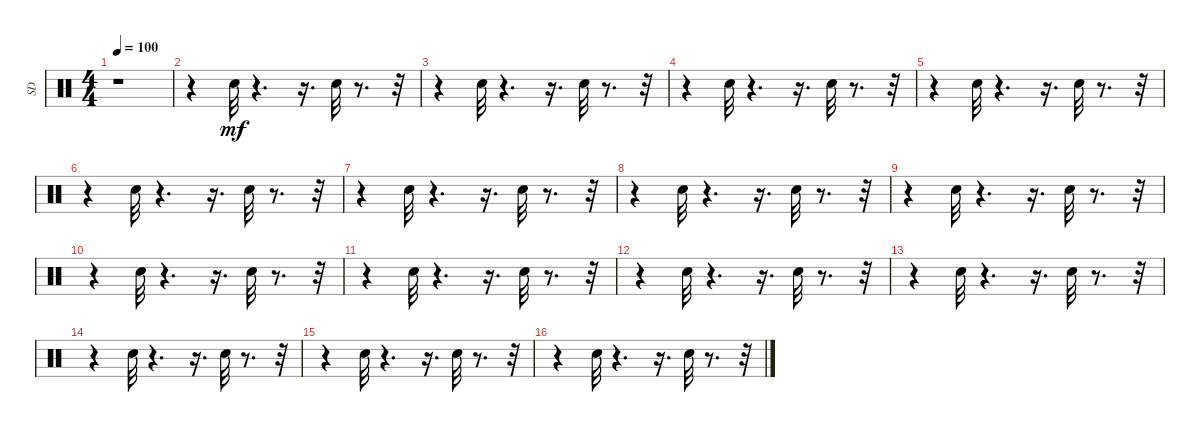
\track ("SD" "SD") {instrument percussion}
\staff {score}
\articulation defaults
\ts (4 4)
\tempo 100
\clef neutral
\ks c
r.1{dy mf} |
r.4 "Metronome (bell)".32 r.4{d} r.16{d} "Metronome (bell)".32 r.8{d} r.32 |
r.4 "Metronome (bell)".32 r.4{d} r.16{d} "Metronome (bell)".32 r.8{d} r.32 |
r.4 "Metronome (bell)".32 r.4{d} r.16{d} "Metronome (bell)".32 r.8{d} r.32 |
r.4 "Metronome (bell)".32 r.4{d} r.16{d} "Metronome (bell)".32 r.8{d} r.32 |
r.4 "Metronome (bell)".32 r.4{d} r.16{d} "Metronome (bell)".32 r.8{d} r.32 |
r.4 "Metronome (bell)".32 r.4{d} r.16{d} "Metronome (bell)".32 r.8{d} r.32 |
r.4 "Metronome (bell)".32 r.4{d} r.16{d} "Metronome (bell)".32 r.8{d} r.32 |
r.4 "Metronome (bell)".32 r.4{d} r.16{d} "Metronome (bell)".32 r.8{d} r.32 |
r.4 "Metronome (bell)".32 r.4{d} r.16{d} "Metronome (bell)".32 r.8{d} r.32 |
r.4 "Metronome (bell)".32 r.4{d} r.16{d} "Metronome (bell)".32 r.8{d} r.32 |
r.4 "Metronome (bell)".32 r.4{d} r.16{d} "Metronome (bell)".32 r.8{d} r.32 |
r.4 "Metronome (bell)".32 r.4{d} r.16{d} "Metronome (bell)".32 r.8{d} r.32 |
r.4 "Metronome (bell)".32 r.4{d} r.16{d} "Metronome (bell)".32 r.8{d} r.32 |
r.4 "Metronome (bell)".32 r.4{d} r.16{d} "Metronome (bell)".32 r.8{d} r.32 |
r.4 "Metronome (bell)".32 r.4{d} r.16{d} "Metronome (bell)".32 r.8{d} r.32
